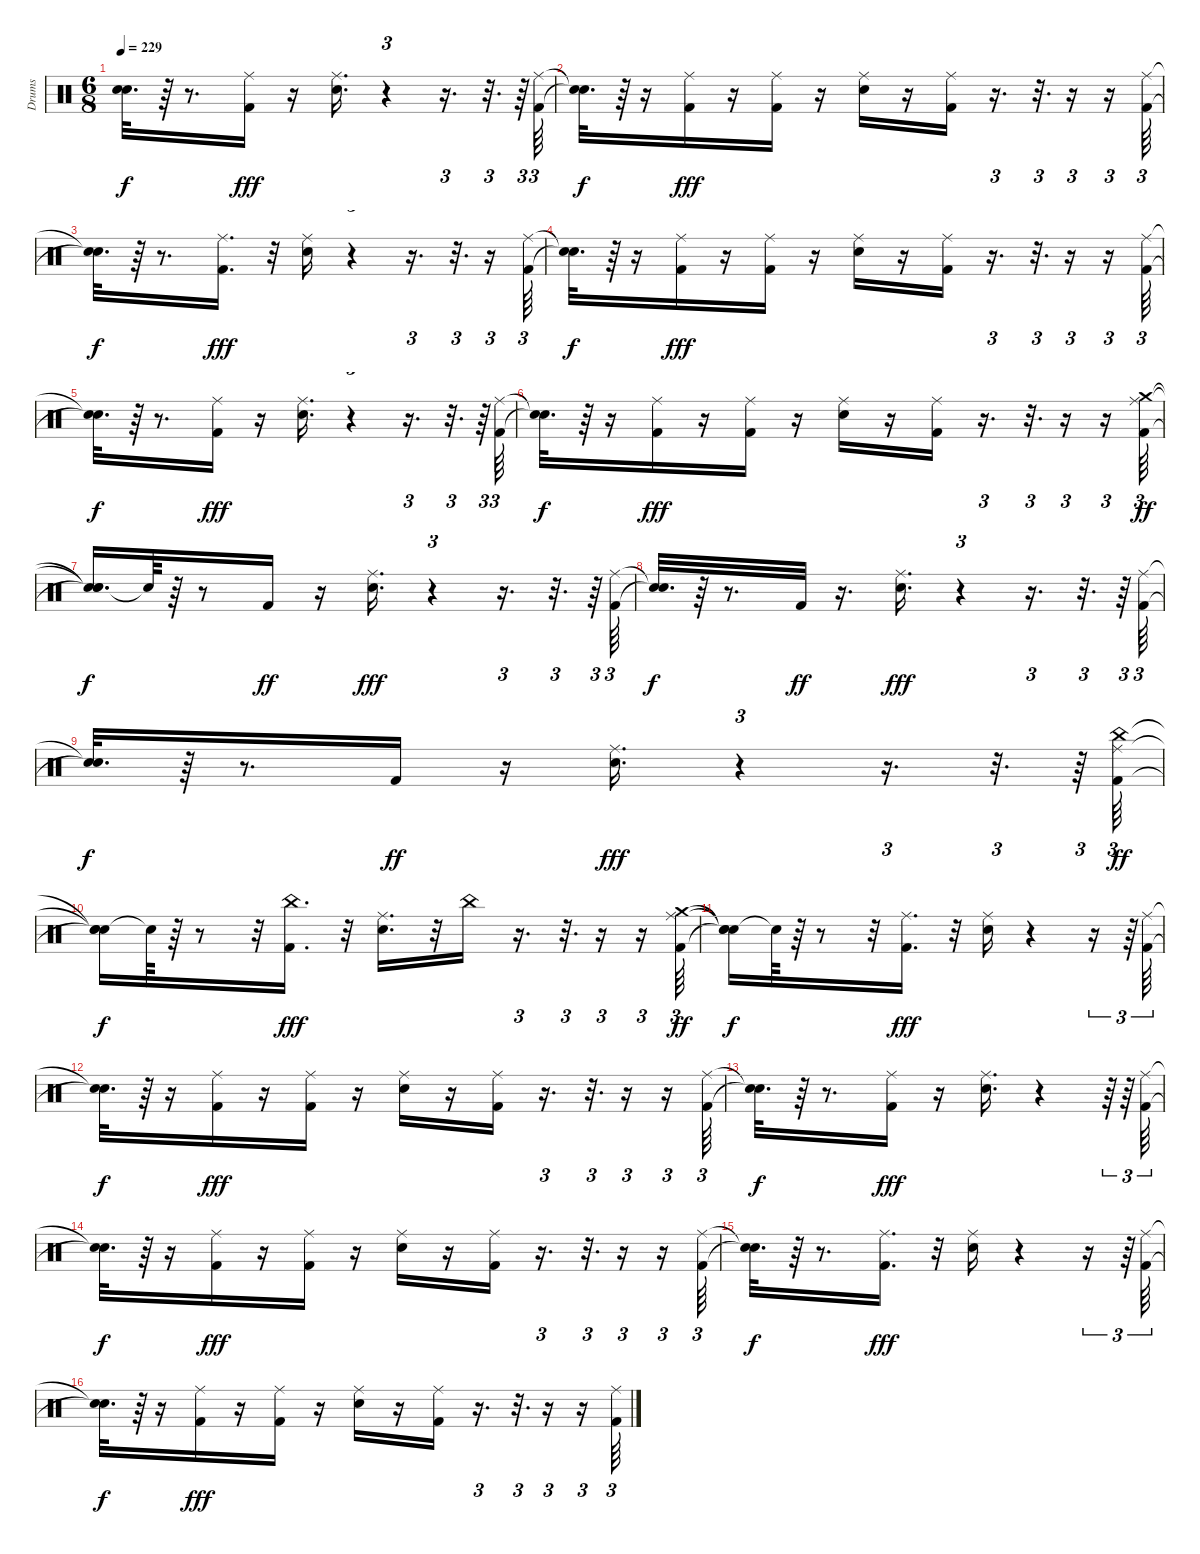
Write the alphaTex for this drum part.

\track ("Drums" "Drums") {instrument percussion}
\staff {score}
\articulation defaults
\ts (6 8)
\tempo 229
\clef neutral
\ks c
("Snare (hit)"{t} "Snare (hit)"{t}).32{d dy f} r.64 r.8{d} ("Kick (hit) 2" "Ride (middle)").16{dy fff} r.16 ("Snare (hit) 2" "Ride (middle)").16{d} r.4{tu (3 2)} r.16{d tu (3 2)} r.32{d tu (3 2)} r.64{tu (3 2)} ("Kick (hit) 2" "Ride (middle)").64{tu (3 2)} |
("Snare (hit)"{t} "Snare (hit)"{t}).32{d dy f} r.64 r.16 ("Kick (hit) 2" "Ride (middle)").16{dy fff} r.16 ("Kick (hit) 2" "Ride (middle)").16 r.16 ("Snare (hit) 2" "Ride (middle)").16 r.16 ("Kick (hit) 2" "Ride (middle)").16 r.16{d tu (3 2)} r.32{d tu (3 2)} r.16{tu (3 2)} r.16{tu (3 2)} ("Kick (hit) 2" "Ride (middle)").64{tu (3 2)} |
("Snare (hit)"{t} "Snare (hit)"{t}).32{d dy f} r.64 r.8{d} ("Kick (hit) 2" "Ride (middle)").16{d dy fff} r.32 ("Snare (hit) 2" "Ride (middle)").16 r.4{tu (3 2)} r.16{d tu (3 2)} r.32{d tu (3 2)} r.16{tu (3 2)} ("Kick (hit) 2" "Ride (middle)").64{tu (3 2)} |
("Snare (hit)"{t} "Snare (hit)"{t}).32{d dy f} r.64 r.16 ("Kick (hit) 2" "Ride (middle)").16{dy fff} r.16 ("Kick (hit) 2" "Ride (middle)").16 r.16 ("Snare (hit) 2" "Ride (middle)").16 r.16 ("Kick (hit) 2" "Ride (middle)").16 r.16{d tu (3 2)} r.32{d tu (3 2)} r.16{tu (3 2)} r.16{tu (3 2)} ("Kick (hit) 2" "Ride (middle)").64{tu (3 2)} |
("Snare (hit)"{t} "Snare (hit)"{t}).32{d dy f} r.64 r.8{d} ("Kick (hit) 2" "Ride (middle)").16{dy fff} r.16 ("Snare (hit) 2" "Ride (middle)").16{d} r.4{tu (3 2)} r.16{d tu (3 2)} r.32{d tu (3 2)} r.64{tu (3 2)} ("Kick (hit) 2" "Ride (middle)").64{tu (3 2)} |
("Snare (hit)"{t} "Snare (hit)"{t}).32{d dy f} r.64 r.16 ("Kick (hit) 2" "Ride (middle)").16{dy fff} r.16 ("Kick (hit) 2" "Ride (middle)").16 r.16 ("Snare (hit) 2" "Ride (middle)").16 r.16 ("Kick (hit) 2" "Ride (middle)").16 r.16{d tu (3 2)} r.32{d tu (3 2)} r.16{tu (3 2)} r.16{tu (3 2)} ("Kick (hit) 2" "Ride (middle)" "Crash medium (hit)").64{tu (3 2) dy ff} |
("Snare (hit)"{t} "Snare (hit)"{t} "Snare (hit)"{t}).16{d dy f} "Snare (hit)"{t}.64 r.64 r.8 "Kick (hit) 2".16{dy ff} r.16 ("Snare (hit) 2" "Ride (middle)").16{d dy fff} r.4{tu (3 2)} r.16{d tu (3 2)} r.32{d tu (3 2)} r.64{tu (3 2)} ("Kick (hit) 2" "Ride (middle)").64{tu (3 2)} |
("Snare (hit)"{t} "Snare (hit)"{t}).32{d dy f} r.64 r.8{d} "Kick (hit) 2".32{dy ff} r.16{d} ("Snare (hit) 2" "Ride (middle)").16{d dy fff} r.4{tu (3 2)} r.16{d tu (3 2)} r.32{d tu (3 2)} r.64{tu (3 2)} ("Kick (hit) 2" "Ride (middle)").64{tu (3 2)} |
("Snare (hit)"{t} "Snare (hit)"{t}).32{d dy f} r.64 r.8{d} "Kick (hit) 2".16{dy ff} r.16 ("Snare (hit) 2" "Ride (middle)").16{d dy fff} r.4{tu (3 2)} r.16{d tu (3 2)} r.32{d tu (3 2)} r.64{tu (3 2)} ("Kick (hit) 2" "Ride (middle)" "China (hit)").64{tu (3 2) dy ff} |
("Snare (hit)"{t} "Snare (hit)"{t} "Snare (hit)"{t}).16{dy f} "Snare (hit)"{t}.64 r.64 r.8 r.32 ("Kick (hit) 2" "China (hit)").16{d dy fff} r.32 ("Snare (hit) 2" "Ride (middle)").16{d} r.32 "China (hit)".16 r.16{d tu (3 2)} r.32{d tu (3 2)} r.16{tu (3 2)} r.16{tu (3 2)} ("Kick (hit) 2" "Ride (middle)" "Crash medium (hit)").64{tu (3 2) dy ff} |
("Snare (hit)"{t} "Snare (hit)"{t} "Snare (hit)"{t}).16{dy f} "Snare (hit)"{t}.64 r.64 r.8 r.32 ("Kick (hit) 2" "Ride (middle)").16{d dy fff} r.32 ("Snare (hit) 2" "Ride (middle)").16 r.4 r.16{tu (3 2)} r.64{tu (3 2)} ("Kick (hit) 2" "Ride (middle)").64{tu (3 2)} |
("Snare (hit)"{t} "Snare (hit)"{t}).32{d dy f} r.64 r.16 ("Kick (hit) 2" "Ride (middle)").16{dy fff} r.16 ("Kick (hit) 2" "Ride (middle)").16 r.16 ("Snare (hit) 2" "Ride (middle)").16 r.16 ("Kick (hit) 2" "Ride (middle)").16 r.16{d tu (3 2)} r.32{d tu (3 2)} r.16{tu (3 2)} r.16{tu (3 2)} ("Kick (hit) 2" "Ride (middle)").64{tu (3 2)} |
("Snare (hit)"{t} "Snare (hit)"{t}).32{d dy f} r.64 r.8{d} ("Kick (hit) 2" "Ride (middle)").16{dy fff} r.16 ("Snare (hit) 2" "Ride (middle)").16{d} r.4 r.64{tu (3 2)} r.64{tu (3 2)} ("Kick (hit) 2" "Ride (middle)").64{tu (3 2)} |
("Snare (hit)"{t} "Snare (hit)"{t}).32{d dy f} r.64 r.16 ("Kick (hit) 2" "Ride (middle)").16{dy fff} r.16 ("Kick (hit) 2" "Ride (middle)").16 r.16 ("Snare (hit) 2" "Ride (middle)").16 r.16 ("Kick (hit) 2" "Ride (middle)").16 r.16{d tu (3 2)} r.32{d tu (3 2)} r.16{tu (3 2)} r.16{tu (3 2)} ("Kick (hit) 2" "Ride (middle)").64{tu (3 2)} |
("Snare (hit)"{t} "Snare (hit)"{t}).32{d dy f} r.64 r.8{d} ("Kick (hit) 2" "Ride (middle)").16{d dy fff} r.32 ("Snare (hit) 2" "Ride (middle)").16 r.4 r.16{tu (3 2)} r.64{tu (3 2)} ("Kick (hit) 2" "Ride (middle)").64{tu (3 2)} |
("Snare (hit)"{t} "Snare (hit)"{t}).32{d dy f} r.64 r.16 ("Kick (hit) 2" "Ride (middle)").16{dy fff} r.16 ("Kick (hit) 2" "Ride (middle)").16 r.16 ("Snare (hit) 2" "Ride (middle)").16 r.16 ("Kick (hit) 2" "Ride (middle)").16 r.16{d tu (3 2)} r.32{d tu (3 2)} r.16{tu (3 2)} r.16{tu (3 2)} ("Kick (hit) 2" "Ride (middle)").64{tu (3 2)}
